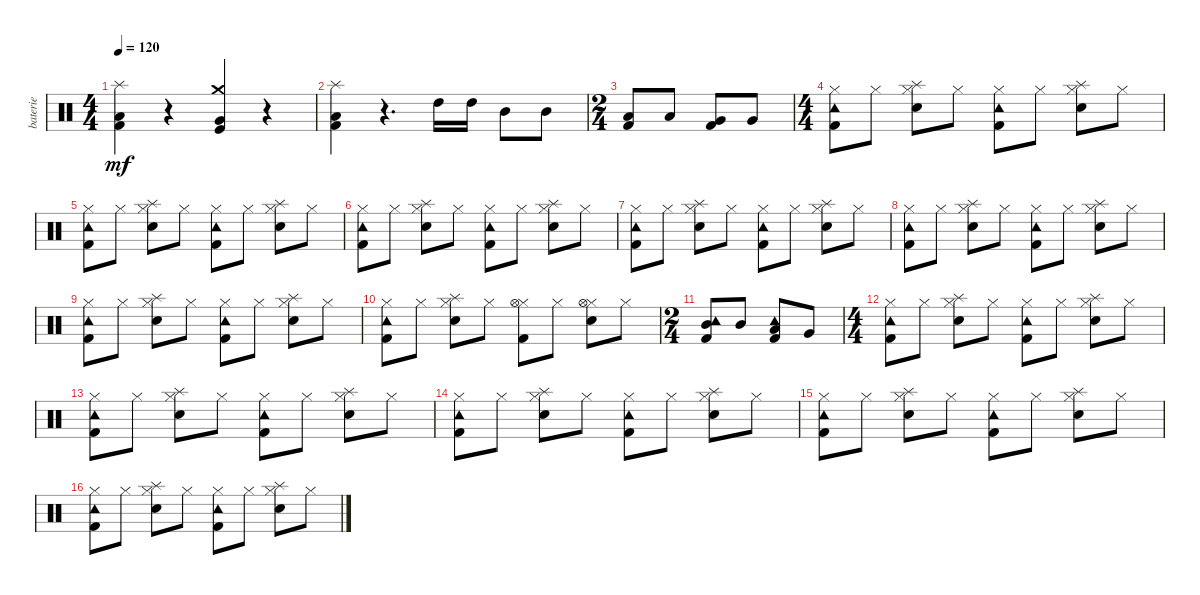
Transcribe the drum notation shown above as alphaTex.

\track ("baterie" "baterie") {instrument percussion}
\staff {score}
\articulation defaults
\ts (4 4)
\tempo 120
\clef neutral
\ks c
("Kick (hit) 2" "Low Floor Tom (hit)" "Splash (hit)").4{dy mf} r.4 ("Very Low Tom (hit)" "Crash medium (hit)" "Kick (hit)").4 r.4 |
("Splash (hit)" "Low Floor Tom (hit)" "Kick (hit) 2").4 r.4{d} "High Tom (hit)".16 "High Tom (hit)".16 "Mid Tom (hit)".8 "Mid Tom (hit)".8 |
\ts (2 4)
("Kick (hit) 2" "Low Tom (hit)").8 "Low Tom (hit)".8 ("Kick (hit) 2" "Very Low Tom (hit)").8 "Very Low Tom (hit)".8 |
\ts (4 4)
("Kick (hit) 2" "Tambourine (hit)" "Hi-Hat (closed)").8 "Hi-Hat (closed)".8 ("Snare (hit) 2" "Splash (hit)" "Hi-Hat (closed)").8 "Hi-Hat (closed)".8 ("Kick (hit) 2" "Tambourine (hit)" "Hi-Hat (closed)").8 "Hi-Hat (closed)".8 ("Snare (hit) 2" "Splash (hit)" "Hi-Hat (closed)").8 "Hi-Hat (closed)".8 |
("Hi-Hat (closed)" "Tambourine (hit)" "Kick (hit) 2").8 "Hi-Hat (closed)".8 ("Snare (hit) 2" "Splash (hit)" "Hi-Hat (closed)").8 "Hi-Hat (closed)".8 ("Kick (hit) 2" "Tambourine (hit)" "Hi-Hat (closed)").8 "Hi-Hat (closed)".8 ("Snare (hit) 2" "Splash (hit)" "Hi-Hat (closed)").8 "Hi-Hat (closed)".8 |
("Hi-Hat (closed)" "Tambourine (hit)" "Kick (hit) 2").8 "Hi-Hat (closed)".8 ("Snare (hit) 2" "Splash (hit)" "Hi-Hat (closed)").8 "Hi-Hat (closed)".8 ("Kick (hit) 2" "Tambourine (hit)" "Hi-Hat (closed)").8 "Hi-Hat (closed)".8 ("Snare (hit) 2" "Splash (hit)" "Hi-Hat (closed)").8 "Hi-Hat (closed)".8 |
("Hi-Hat (closed)" "Tambourine (hit)" "Kick (hit) 2").8 "Hi-Hat (closed)".8 ("Snare (hit) 2" "Splash (hit)" "Hi-Hat (closed)").8 "Hi-Hat (closed)".8 ("Kick (hit) 2" "Tambourine (hit)" "Hi-Hat (closed)").8 "Hi-Hat (closed)".8 ("Snare (hit) 2" "Splash (hit)" "Hi-Hat (closed)").8 "Hi-Hat (closed)".8 |
("Hi-Hat (closed)" "Tambourine (hit)" "Kick (hit) 2").8 "Hi-Hat (closed)".8 ("Snare (hit) 2" "Splash (hit)" "Hi-Hat (closed)").8 "Hi-Hat (closed)".8 ("Kick (hit) 2" "Tambourine (hit)" "Hi-Hat (closed)").8 "Hi-Hat (closed)".8 ("Snare (hit) 2" "Splash (hit)" "Hi-Hat (closed)").8 "Hi-Hat (closed)".8 |
("Hi-Hat (closed)" "Tambourine (hit)" "Kick (hit) 2").8 "Hi-Hat (closed)".8 ("Snare (hit) 2" "Splash (hit)" "Hi-Hat (closed)").8 "Hi-Hat (closed)".8 ("Kick (hit) 2" "Tambourine (hit)" "Hi-Hat (closed)").8 "Hi-Hat (closed)".8 ("Snare (hit) 2" "Splash (hit)" "Hi-Hat (closed)").8 "Hi-Hat (closed)".8 |
("Hi-Hat (closed)" "Tambourine (hit)" "Kick (hit) 2").8 "Hi-Hat (closed)".8 ("Snare (hit) 2" "Splash (hit)" "Hi-Hat (closed)").8 "Hi-Hat (closed)".8 ("Kick (hit) 2" "Hi-Hat (closed)" "Hi-Hat (open)").8 "Hi-Hat (closed)".8 ("Snare (hit) 2" "Hi-Hat (closed)" "Hi-Hat (open)").8 "Hi-Hat (closed)".8 |
\ts (2 4)
("Tambourine (hit)" "Kick (hit) 2" "Mid Tom (hit)").8 "Mid Tom (hit)".8 ("Low Tom (hit)" "Tambourine (hit)" "Kick (hit) 2").8 "Very Low Tom (hit)".8 |
\ts (4 4)
("Kick (hit) 2" "Tambourine (hit)" "Hi-Hat (closed)").8 "Hi-Hat (closed)".8 ("Snare (hit) 2" "Splash (hit)" "Hi-Hat (closed)").8 "Hi-Hat (closed)".8 ("Kick (hit) 2" "Tambourine (hit)" "Hi-Hat (closed)").8 "Hi-Hat (closed)".8 ("Snare (hit) 2" "Splash (hit)" "Hi-Hat (closed)").8 "Hi-Hat (closed)".8 |
("Hi-Hat (closed)" "Tambourine (hit)" "Kick (hit) 2").8 "Hi-Hat (closed)".8 ("Snare (hit) 2" "Splash (hit)" "Hi-Hat (closed)").8 "Hi-Hat (closed)".8 ("Kick (hit) 2" "Tambourine (hit)" "Hi-Hat (closed)").8 "Hi-Hat (closed)".8 ("Snare (hit) 2" "Splash (hit)" "Hi-Hat (closed)").8 "Hi-Hat (closed)".8 |
("Hi-Hat (closed)" "Tambourine (hit)" "Kick (hit) 2").8 "Hi-Hat (closed)".8 ("Snare (hit) 2" "Splash (hit)" "Hi-Hat (closed)").8 "Hi-Hat (closed)".8 ("Kick (hit) 2" "Tambourine (hit)" "Hi-Hat (closed)").8 "Hi-Hat (closed)".8 ("Snare (hit) 2" "Splash (hit)" "Hi-Hat (closed)").8 "Hi-Hat (closed)".8 |
("Hi-Hat (closed)" "Tambourine (hit)" "Kick (hit) 2").8 "Hi-Hat (closed)".8 ("Snare (hit) 2" "Splash (hit)" "Hi-Hat (closed)").8 "Hi-Hat (closed)".8 ("Kick (hit) 2" "Tambourine (hit)" "Hi-Hat (closed)").8 "Hi-Hat (closed)".8 ("Snare (hit) 2" "Splash (hit)" "Hi-Hat (closed)").8 "Hi-Hat (closed)".8 |
("Hi-Hat (closed)" "Tambourine (hit)" "Kick (hit) 2").8 "Hi-Hat (closed)".8 ("Snare (hit) 2" "Splash (hit)" "Hi-Hat (closed)").8 "Hi-Hat (closed)".8 ("Kick (hit) 2" "Tambourine (hit)" "Hi-Hat (closed)").8 "Hi-Hat (closed)".8 ("Snare (hit) 2" "Splash (hit)" "Hi-Hat (closed)").8 "Hi-Hat (closed)".8
